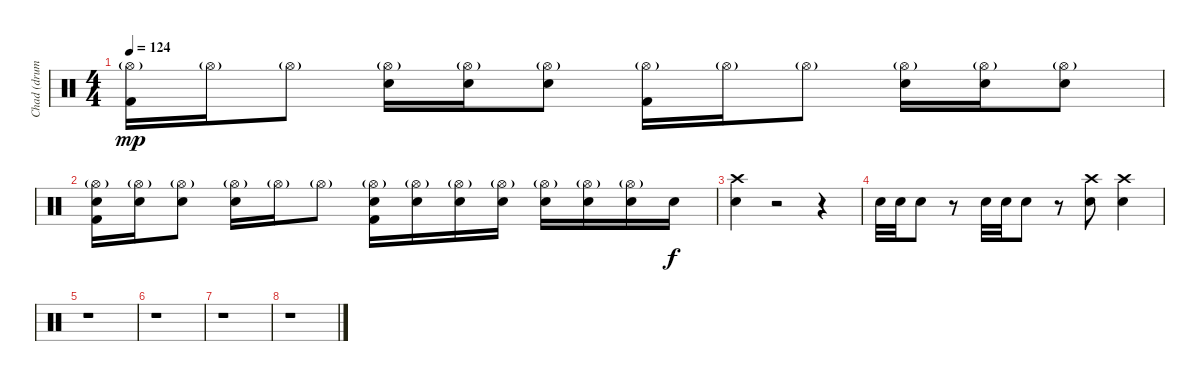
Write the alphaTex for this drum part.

\track ("Chad (drums)" "Chad (drum") {instrument percussion}
\staff {score}
\articulation defaults
\ts (4 4)
\tempo 124
\clef neutral
\ks c
("Kick (hit) 2" "Hi-Hat (open)"{g}).16{dy mp} "Hi-Hat (open)"{g}.16 "Hi-Hat (open)"{g}.8 ("Electric Snare (hit)" "Hi-Hat (open)"{g}).16 ("Electric Snare (hit)" "Hi-Hat (open)"{g}).16 ("Electric Snare (hit)" "Hi-Hat (open)"{g}).8 ("Kick (hit) 2" "Hi-Hat (open)"{g}).16 "Hi-Hat (open)"{g}.16 "Hi-Hat (open)"{g}.8 ("Electric Snare (hit)" "Hi-Hat (open)"{g}).16 ("Electric Snare (hit)" "Hi-Hat (open)"{g}).16 ("Electric Snare (hit)" "Hi-Hat (open)"{g}).8 |
("Kick (hit) 2" "Electric Snare (hit)" "Hi-Hat (open)"{g}).16 ("Electric Snare (hit)" "Hi-Hat (open)"{g}).16 ("Electric Snare (hit)" "Hi-Hat (open)"{g}).8 ("Electric Snare (hit)" "Hi-Hat (open)"{g}).16 "Hi-Hat (open)"{g}.16 "Hi-Hat (open)"{g}.8 ("Kick (hit) 2" "Electric Snare (hit)" "Hi-Hat (open)"{g}).16 ("Electric Snare (hit)" "Hi-Hat (open)"{g}).16 ("Electric Snare (hit)" "Hi-Hat (open)"{g}).16 ("Electric Snare (hit)" "Hi-Hat (open)"{g}).16 ("Electric Snare (hit)" "Hi-Hat (open)"{g}).16 ("Electric Snare (hit)" "Hi-Hat (open)"{g}).16 ("Electric Snare (hit)" "Hi-Hat (open)"{g}).16 "Electric Snare (hit)".16{dy f} |
("Electric Snare (hit)" "Crash high (hit)").4 r.2 r.4 |
"Electric Snare (hit)".32 "Electric Snare (hit)".32 "Electric Snare (hit)".8 r.8 "Electric Snare (hit)".32 "Electric Snare (hit)".32 "Electric Snare (hit)".8 r.8 ("Electric Snare (hit)" "Crash high (hit)").8 ("Electric Snare (hit)" "Crash high (hit)").4 |
r.1 |
r.1 |
r.1 |
r.1
